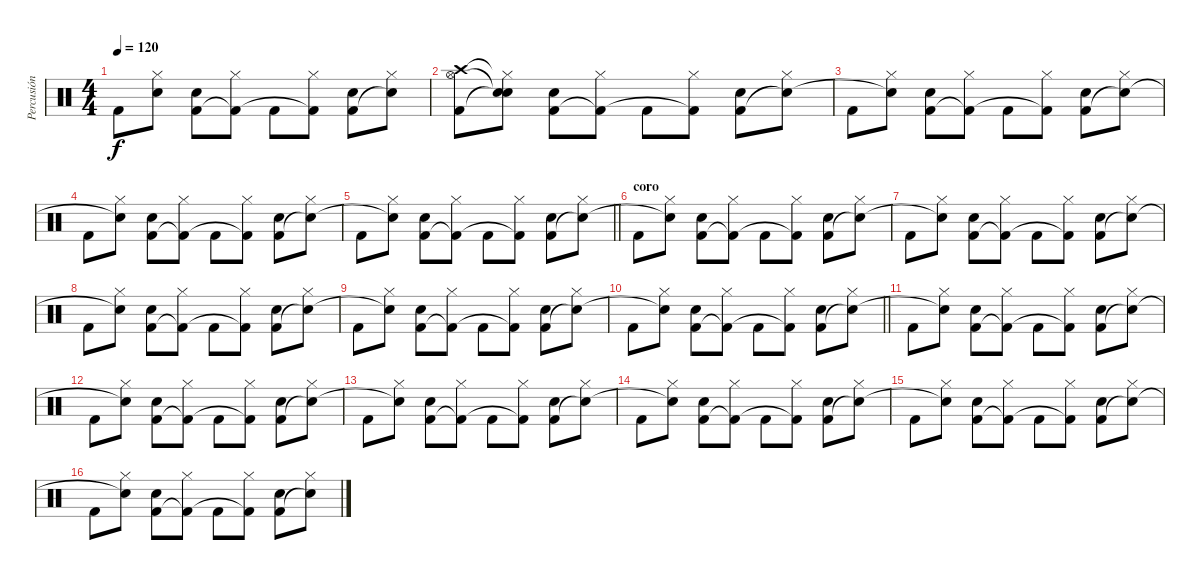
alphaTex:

\track ("Percusión" "Percusión") {instrument percussion}
\staff {score}
\articulation defaults
\ts (4 4)
\tempo 120
\clef neutral
\ks c "Kick (hit) 2".8{dy f}
("Hi-Hat (closed)" "Snare (hit)"{t}).8 ("Electric Snare (hit)" "Kick (hit) 2").8 ("Hi-Hat (closed)" "Kick (hit) 2"{t}).8 "Kick (hit) 2".8 ("Hi-Hat (closed)" "Kick (hit) 2"{t}).8 ("Electric Snare (hit)" "Kick (hit) 2").8 ("Hi-Hat (closed)" "Snare (hit)"{t}).8 |
("Crash high (hit)" "Kick (hit) 2" "Hi-Hat (open)").8 ("Hi-Hat (closed)"{t} "Snare (hit)"{t} "Snare (hit)"{t}).8 ("Electric Snare (hit)" "Kick (hit) 2").8 ("Hi-Hat (closed)" "Kick (hit) 2"{t}).8 "Kick (hit) 2".8 ("Hi-Hat (closed)" "Kick (hit) 2"{t}).8 ("Electric Snare (hit)" "Kick (hit) 2").8 ("Hi-Hat (closed)" "Snare (hit)"{t}).8 |
"Kick (hit) 2".8 ("Hi-Hat (closed)" "Snare (hit)"{t}).8 ("Electric Snare (hit)" "Kick (hit) 2").8 ("Hi-Hat (closed)" "Kick (hit) 2"{t}).8 "Kick (hit) 2".8 ("Hi-Hat (closed)" "Kick (hit) 2"{t}).8 ("Electric Snare (hit)" "Kick (hit) 2").8 ("Hi-Hat (closed)" "Snare (hit)"{t}).8 |
"Kick (hit) 2".8 ("Hi-Hat (closed)" "Snare (hit)"{t}).8 ("Electric Snare (hit)" "Kick (hit) 2").8 ("Hi-Hat (closed)" "Kick (hit) 2"{t}).8 "Kick (hit) 2".8 ("Hi-Hat (closed)" "Kick (hit) 2"{t}).8 ("Electric Snare (hit)" "Kick (hit) 2").8 ("Hi-Hat (closed)" "Snare (hit)"{t}).8 |
\barLineRight lightlight "Kick (hit) 2".8
("Hi-Hat (closed)" "Snare (hit)"{t}).8 ("Electric Snare (hit)" "Kick (hit) 2").8 ("Hi-Hat (closed)" "Kick (hit) 2"{t}).8 "Kick (hit) 2".8 ("Hi-Hat (closed)" "Kick (hit) 2"{t}).8 ("Electric Snare (hit)" "Kick (hit) 2").8 ("Hi-Hat (closed)" "Snare (hit)"{t}).8 |
\section ("" "coro")
"Kick (hit) 2".8 ("Hi-Hat (closed)" "Snare (hit)"{t}).8 ("Electric Snare (hit)" "Kick (hit) 2").8 ("Hi-Hat (closed)" "Kick (hit) 2"{t}).8 "Kick (hit) 2".8 ("Hi-Hat (closed)" "Kick (hit) 2"{t}).8 ("Electric Snare (hit)" "Kick (hit) 2").8 ("Hi-Hat (closed)" "Snare (hit)"{t}).8 |
"Kick (hit) 2".8 ("Hi-Hat (closed)" "Snare (hit)"{t}).8 ("Electric Snare (hit)" "Kick (hit) 2").8 ("Hi-Hat (closed)" "Kick (hit) 2"{t}).8 "Kick (hit) 2".8 ("Hi-Hat (closed)" "Kick (hit) 2"{t}).8 ("Electric Snare (hit)" "Kick (hit) 2").8 ("Hi-Hat (closed)" "Snare (hit)"{t}).8 |
"Kick (hit) 2".8 ("Hi-Hat (closed)" "Snare (hit)"{t}).8 ("Electric Snare (hit)" "Kick (hit) 2").8 ("Hi-Hat (closed)" "Kick (hit) 2"{t}).8 "Kick (hit) 2".8 ("Hi-Hat (closed)" "Kick (hit) 2"{t}).8 ("Electric Snare (hit)" "Kick (hit) 2").8 ("Hi-Hat (closed)" "Snare (hit)"{t}).8 |
"Kick (hit) 2".8 ("Hi-Hat (closed)" "Snare (hit)"{t}).8 ("Electric Snare (hit)" "Kick (hit) 2").8 ("Hi-Hat (closed)" "Kick (hit) 2"{t}).8 "Kick (hit) 2".8 ("Hi-Hat (closed)" "Kick (hit) 2"{t}).8 ("Electric Snare (hit)" "Kick (hit) 2").8 ("Hi-Hat (closed)" "Snare (hit)"{t}).8 |
\barLineRight lightlight "Kick (hit) 2".8
("Hi-Hat (closed)" "Snare (hit)"{t}).8 ("Electric Snare (hit)" "Kick (hit) 2").8 ("Hi-Hat (closed)" "Kick (hit) 2"{t}).8 "Kick (hit) 2".8 ("Hi-Hat (closed)" "Kick (hit) 2"{t}).8 ("Electric Snare (hit)" "Kick (hit) 2").8 ("Hi-Hat (closed)" "Snare (hit)"{t}).8 |
"Kick (hit) 2".8 ("Hi-Hat (closed)" "Snare (hit)"{t}).8 ("Electric Snare (hit)" "Kick (hit) 2").8 ("Hi-Hat (closed)" "Kick (hit) 2"{t}).8 "Kick (hit) 2".8 ("Hi-Hat (closed)" "Kick (hit) 2"{t}).8 ("Electric Snare (hit)" "Kick (hit) 2").8 ("Hi-Hat (closed)" "Snare (hit)"{t}).8 |
"Kick (hit) 2".8 ("Hi-Hat (closed)" "Snare (hit)"{t}).8 ("Electric Snare (hit)" "Kick (hit) 2").8 ("Hi-Hat (closed)" "Kick (hit) 2"{t}).8 "Kick (hit) 2".8 ("Hi-Hat (closed)" "Kick (hit) 2"{t}).8 ("Electric Snare (hit)" "Kick (hit) 2").8 ("Hi-Hat (closed)" "Snare (hit)"{t}).8 |
"Kick (hit) 2".8 ("Hi-Hat (closed)" "Snare (hit)"{t}).8 ("Electric Snare (hit)" "Kick (hit) 2").8 ("Hi-Hat (closed)" "Kick (hit) 2"{t}).8 "Kick (hit) 2".8 ("Hi-Hat (closed)" "Kick (hit) 2"{t}).8 ("Electric Snare (hit)" "Kick (hit) 2").8 ("Hi-Hat (closed)" "Snare (hit)"{t}).8 |
"Kick (hit) 2".8 ("Hi-Hat (closed)" "Snare (hit)"{t}).8 ("Electric Snare (hit)" "Kick (hit) 2").8 ("Hi-Hat (closed)" "Kick (hit) 2"{t}).8 "Kick (hit) 2".8 ("Hi-Hat (closed)" "Kick (hit) 2"{t}).8 ("Electric Snare (hit)" "Kick (hit) 2").8 ("Hi-Hat (closed)" "Snare (hit)"{t}).8 |
"Kick (hit) 2".8 ("Hi-Hat (closed)" "Snare (hit)"{t}).8 ("Electric Snare (hit)" "Kick (hit) 2").8 ("Hi-Hat (closed)" "Kick (hit) 2"{t}).8 "Kick (hit) 2".8 ("Hi-Hat (closed)" "Kick (hit) 2"{t}).8 ("Electric Snare (hit)" "Kick (hit) 2").8 ("Hi-Hat (closed)" "Snare (hit)"{t}).8 |
"Kick (hit) 2".8 ("Hi-Hat (closed)" "Snare (hit)"{t}).8 ("Electric Snare (hit)" "Kick (hit) 2").8 ("Hi-Hat (closed)" "Kick (hit) 2"{t}).8 "Kick (hit) 2".8 ("Hi-Hat (closed)" "Kick (hit) 2"{t}).8 ("Electric Snare (hit)" "Kick (hit) 2").8 ("Hi-Hat (closed)" "Snare (hit)"{t}).8
